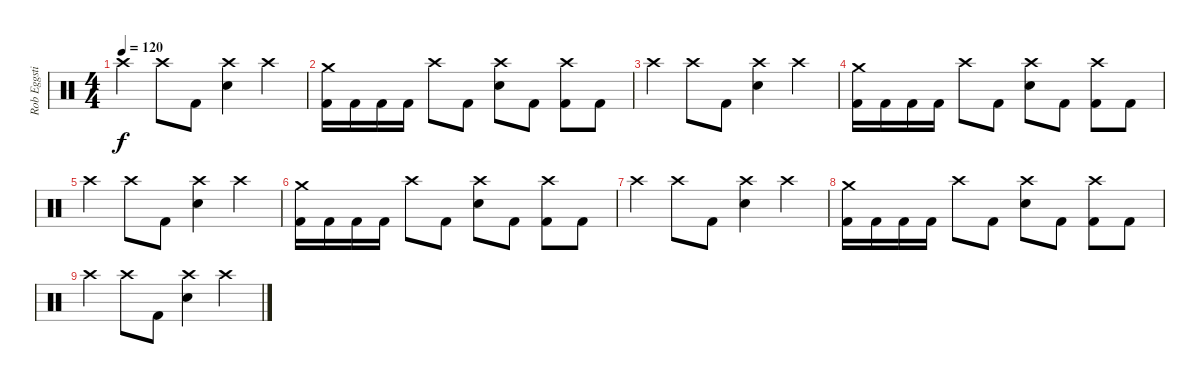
\track ("Rob Eggstick" "Rob Eggsti") {instrument percussion}
\staff {score}
\articulation defaults
\ts (4 4)
\tempo 120
\clef neutral
\ks c "Crash high (hit)".4{dy f} "Crash high (hit)".8 "Kick (hit) 2".8
("Crash high (hit)" "Electric Snare (hit)").4 "Crash high (hit)".4 |
("Crash medium (hit)" "Kick (hit) 2").16{volume 4} "Kick (hit) 2".16 "Kick (hit) 2".16 "Kick (hit) 2".16 "Crash high (hit)".8 "Kick (hit) 2".8 ("Crash high (hit)" "Electric Snare (hit)").8 "Kick (hit) 2".8 ("Crash high (hit)" "Kick (hit) 2").8 "Kick (hit) 2".8 |
"Crash high (hit)".4 "Crash high (hit)".8 "Kick (hit) 2".8 ("Crash high (hit)" "Electric Snare (hit)").4 "Crash high (hit)".4 |
("Crash medium (hit)" "Kick (hit) 2").16 "Kick (hit) 2".16 "Kick (hit) 2".16 "Kick (hit) 2".16 "Crash high (hit)".8 "Kick (hit) 2".8 ("Crash high (hit)" "Electric Snare (hit)").8 "Kick (hit) 2".8 ("Crash high (hit)" "Kick (hit) 2").8 "Kick (hit) 2".8 |
"Crash high (hit)".4 "Crash high (hit)".8 "Kick (hit) 2".8 ("Crash high (hit)" "Electric Snare (hit)").4 "Crash high (hit)".4 |
("Crash medium (hit)" "Kick (hit) 2").16{volume 0} "Kick (hit) 2".16 "Kick (hit) 2".16 "Kick (hit) 2".16 "Crash high (hit)".8 "Kick (hit) 2".8 ("Crash high (hit)" "Electric Snare (hit)").8 "Kick (hit) 2".8 ("Crash high (hit)" "Kick (hit) 2").8 "Kick (hit) 2".8 |
"Crash high (hit)".4 "Crash high (hit)".8 "Kick (hit) 2".8 ("Crash high (hit)" "Electric Snare (hit)").4 "Crash high (hit)".4 |
("Crash medium (hit)" "Kick (hit) 2").16 "Kick (hit) 2".16 "Kick (hit) 2".16 "Kick (hit) 2".16 "Crash high (hit)".8 "Kick (hit) 2".8 ("Crash high (hit)" "Electric Snare (hit)").8 "Kick (hit) 2".8 ("Crash high (hit)" "Kick (hit) 2").8 "Kick (hit) 2".8 |
"Crash high (hit)".4 "Crash high (hit)".8 "Kick (hit) 2".8 ("Crash high (hit)" "Electric Snare (hit)").4 "Crash high (hit)".4
